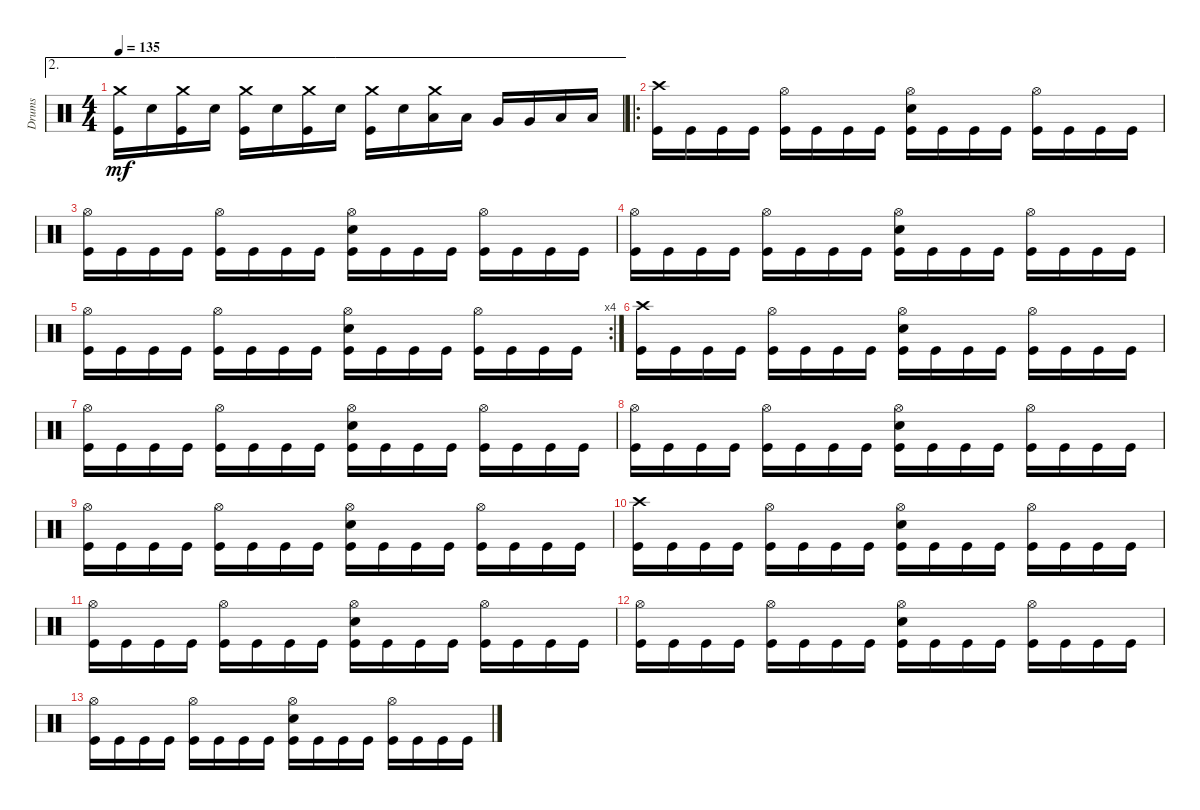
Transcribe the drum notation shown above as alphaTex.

\track ("Drums" "Drums") {instrument percussion}
\staff {score}
\articulation defaults
\ae 2
\ts (4 4)
\tempo 135
\clef neutral
\ks c
("Crash medium (hit)" "Kick (hit)").16{dy mf} "Snare (hit) 2".16 ("Crash medium (hit)" "Kick (hit)").16 "Snare (hit) 2".16 ("Crash medium (hit)" "Kick (hit)").16 "Snare (hit) 2".16 ("Crash medium (hit)" "Kick (hit)").16 "Snare (hit) 2".16 ("Crash medium (hit)" "Kick (hit)").16 "Snare (hit) 2".16 ("Crash medium (hit)" "Low Tom (hit)").16 "Low Tom (hit)".16 "Very Low Tom (hit)".16 "Very Low Tom (hit)".16 "Low Floor Tom (hit)".16 "Low Floor Tom (hit)".16 |
\ro
("Crash high (hit)" "Kick (hit)").16 "Kick (hit)".16 "Kick (hit)".16 "Kick (hit)".16 ("Hi-Hat (open)" "Kick (hit)").16 "Kick (hit)".16 "Kick (hit)".16 "Kick (hit)".16 ("Hi-Hat (open)" "Snare (hit) 2" "Kick (hit)").16 "Kick (hit)".16 "Kick (hit)".16 "Kick (hit)".16 ("Hi-Hat (open)" "Kick (hit)").16 "Kick (hit)".16 "Kick (hit)".16 "Kick (hit)".16 |
("Hi-Hat (open)" "Kick (hit)").16 "Kick (hit)".16 "Kick (hit)".16 "Kick (hit)".16 ("Hi-Hat (open)" "Kick (hit)").16 "Kick (hit)".16 "Kick (hit)".16 "Kick (hit)".16 ("Hi-Hat (open)" "Snare (hit) 2" "Kick (hit)").16 "Kick (hit)".16 "Kick (hit)".16 "Kick (hit)".16 ("Hi-Hat (open)" "Kick (hit)").16 "Kick (hit)".16 "Kick (hit)".16 "Kick (hit)".16 |
("Hi-Hat (open)" "Kick (hit)").16 "Kick (hit)".16 "Kick (hit)".16 "Kick (hit)".16 ("Hi-Hat (open)" "Kick (hit)").16 "Kick (hit)".16 "Kick (hit)".16 "Kick (hit)".16 ("Hi-Hat (open)" "Snare (hit) 2" "Kick (hit)").16 "Kick (hit)".16 "Kick (hit)".16 "Kick (hit)".16 ("Hi-Hat (open)" "Kick (hit)").16 "Kick (hit)".16 "Kick (hit)".16 "Kick (hit)".16 |
\rc 4
("Hi-Hat (open)" "Kick (hit)").16 "Kick (hit)".16 "Kick (hit)".16 "Kick (hit)".16 ("Hi-Hat (open)" "Kick (hit)").16 "Kick (hit)".16 "Kick (hit)".16 "Kick (hit)".16 ("Hi-Hat (open)" "Snare (hit) 2" "Kick (hit)").16 "Kick (hit)".16 "Kick (hit)".16 "Kick (hit)".16 ("Hi-Hat (open)" "Kick (hit)").16 "Kick (hit)".16 "Kick (hit)".16 "Kick (hit)".16 |
("Crash high (hit)" "Kick (hit)").16 "Kick (hit)".16 "Kick (hit)".16 "Kick (hit)".16 ("Hi-Hat (open)" "Kick (hit)").16 "Kick (hit)".16 "Kick (hit)".16 "Kick (hit)".16 ("Hi-Hat (open)" "Snare (hit) 2" "Kick (hit)").16 "Kick (hit)".16 "Kick (hit)".16 "Kick (hit)".16 ("Hi-Hat (open)" "Kick (hit)").16 "Kick (hit)".16 "Kick (hit)".16 "Kick (hit)".16 |
("Hi-Hat (open)" "Kick (hit)").16 "Kick (hit)".16 "Kick (hit)".16 "Kick (hit)".16 ("Hi-Hat (open)" "Kick (hit)").16 "Kick (hit)".16 "Kick (hit)".16 "Kick (hit)".16 ("Hi-Hat (open)" "Snare (hit) 2" "Kick (hit)").16 "Kick (hit)".16 "Kick (hit)".16 "Kick (hit)".16 ("Hi-Hat (open)" "Kick (hit)").16 "Kick (hit)".16 "Kick (hit)".16 "Kick (hit)".16 |
("Hi-Hat (open)" "Kick (hit)").16 "Kick (hit)".16 "Kick (hit)".16 "Kick (hit)".16 ("Hi-Hat (open)" "Kick (hit)").16 "Kick (hit)".16 "Kick (hit)".16 "Kick (hit)".16 ("Hi-Hat (open)" "Snare (hit) 2" "Kick (hit)").16 "Kick (hit)".16 "Kick (hit)".16 "Kick (hit)".16 ("Hi-Hat (open)" "Kick (hit)").16 "Kick (hit)".16 "Kick (hit)".16 "Kick (hit)".16 |
("Hi-Hat (open)" "Kick (hit)").16 "Kick (hit)".16 "Kick (hit)".16 "Kick (hit)".16 ("Hi-Hat (open)" "Kick (hit)").16 "Kick (hit)".16 "Kick (hit)".16 "Kick (hit)".16 ("Hi-Hat (open)" "Snare (hit) 2" "Kick (hit)").16 "Kick (hit)".16 "Kick (hit)".16 "Kick (hit)".16 ("Hi-Hat (open)" "Kick (hit)").16 "Kick (hit)".16 "Kick (hit)".16 "Kick (hit)".16 |
("Crash high (hit)" "Kick (hit)").16 "Kick (hit)".16 "Kick (hit)".16 "Kick (hit)".16 ("Hi-Hat (open)" "Kick (hit)").16 "Kick (hit)".16 "Kick (hit)".16 "Kick (hit)".16 ("Hi-Hat (open)" "Snare (hit) 2" "Kick (hit)").16 "Kick (hit)".16 "Kick (hit)".16 "Kick (hit)".16 ("Hi-Hat (open)" "Kick (hit)").16 "Kick (hit)".16 "Kick (hit)".16 "Kick (hit)".16 |
("Hi-Hat (open)" "Kick (hit)").16 "Kick (hit)".16 "Kick (hit)".16 "Kick (hit)".16 ("Hi-Hat (open)" "Kick (hit)").16 "Kick (hit)".16 "Kick (hit)".16 "Kick (hit)".16 ("Hi-Hat (open)" "Snare (hit) 2" "Kick (hit)").16 "Kick (hit)".16 "Kick (hit)".16 "Kick (hit)".16 ("Hi-Hat (open)" "Kick (hit)").16 "Kick (hit)".16 "Kick (hit)".16 "Kick (hit)".16 |
("Hi-Hat (open)" "Kick (hit)").16 "Kick (hit)".16 "Kick (hit)".16 "Kick (hit)".16 ("Hi-Hat (open)" "Kick (hit)").16 "Kick (hit)".16 "Kick (hit)".16 "Kick (hit)".16 ("Hi-Hat (open)" "Snare (hit) 2" "Kick (hit)").16 "Kick (hit)".16 "Kick (hit)".16 "Kick (hit)".16 ("Hi-Hat (open)" "Kick (hit)").16 "Kick (hit)".16 "Kick (hit)".16 "Kick (hit)".16 |
("Hi-Hat (open)" "Kick (hit)").16 "Kick (hit)".16 "Kick (hit)".16 "Kick (hit)".16 ("Hi-Hat (open)" "Kick (hit)").16 "Kick (hit)".16 "Kick (hit)".16 "Kick (hit)".16 ("Hi-Hat (open)" "Snare (hit) 2" "Kick (hit)").16 "Kick (hit)".16 "Kick (hit)".16 "Kick (hit)".16 ("Hi-Hat (open)" "Kick (hit)").16 "Kick (hit)".16 "Kick (hit)".16 "Kick (hit)".16
